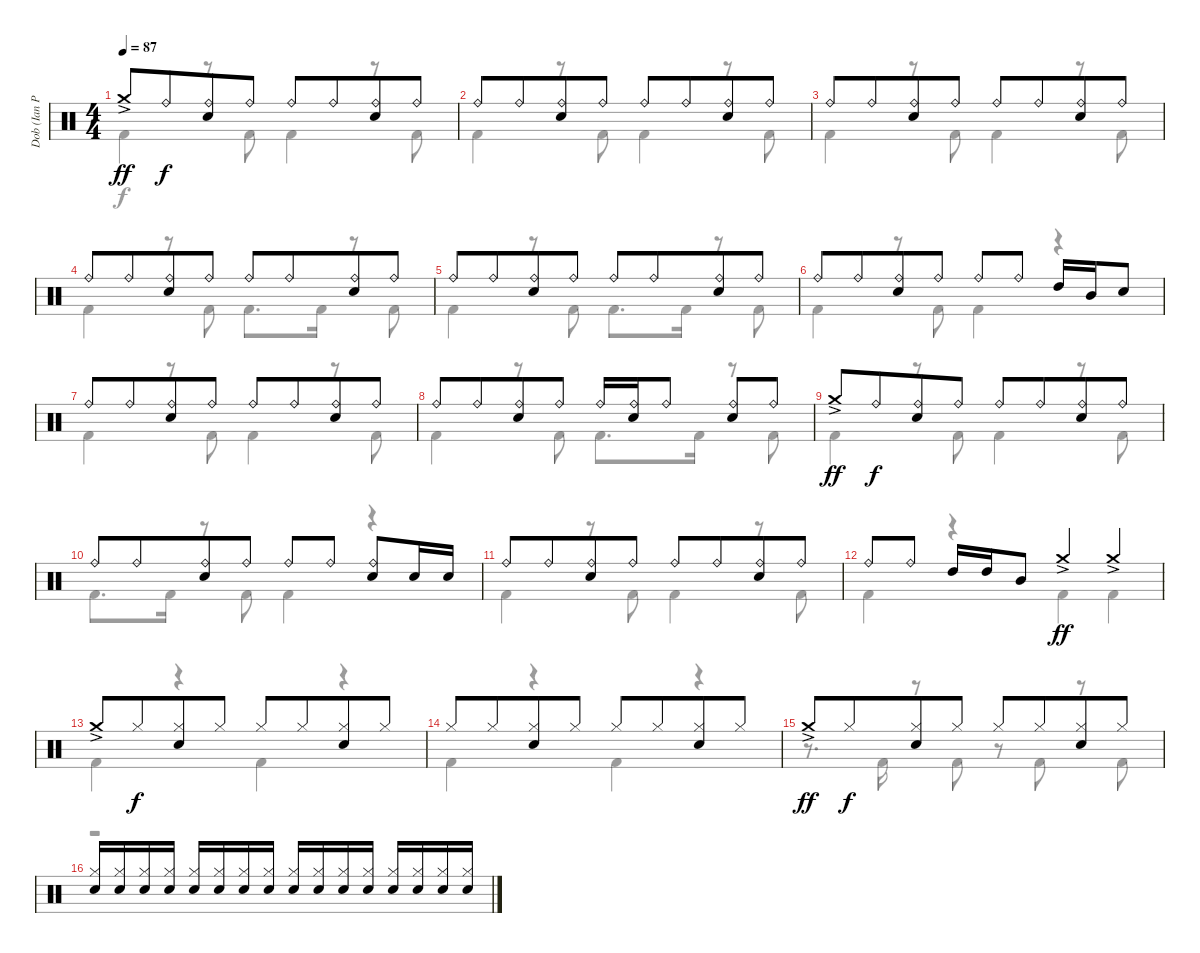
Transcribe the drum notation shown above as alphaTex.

\track ("Dob (Ian Paice)" "Dob (Ian P") {instrument percussion}
\staff {score}
\articulation defaults
\voice
\ts (4 4)
\tempo 87
\clef neutral
\ks c "Crash medium (hit)"{ac}.8{dy ff} "Ride (bell)".8{dy f beam merge}
("Ride (bell)" "Electric Snare (hit)").8 "Ride (bell)".8 "Ride (bell)".8 "Ride (bell)".8{beam merge} ("Ride (bell)" "Electric Snare (hit)").8 "Ride (bell)".8 |
"Ride (bell)".8 "Ride (bell)".8{beam merge} ("Ride (bell)" "Electric Snare (hit)").8 "Ride (bell)".8 "Ride (bell)".8 "Ride (bell)".8{beam merge} ("Ride (bell)" "Electric Snare (hit)").8 "Ride (bell)".8 |
"Ride (bell)".8 "Ride (bell)".8{beam merge} ("Ride (bell)" "Electric Snare (hit)").8 "Ride (bell)".8 "Ride (bell)".8 "Ride (bell)".8{beam merge} ("Ride (bell)" "Electric Snare (hit)").8 "Ride (bell)".8 |
"Ride (bell)".8 "Ride (bell)".8{beam merge} ("Ride (bell)" "Electric Snare (hit)").8 "Ride (bell)".8 "Ride (bell)".8 "Ride (bell)".8{beam merge} ("Ride (bell)" "Electric Snare (hit)").8 "Ride (bell)".8 |
"Ride (bell)".8 "Ride (bell)".8{beam merge} ("Ride (bell)" "Electric Snare (hit)").8 "Ride (bell)".8 "Ride (bell)".8 "Ride (bell)".8{beam merge} ("Ride (bell)" "Electric Snare (hit)").8 "Ride (bell)".8 |
"Ride (bell)".8 "Ride (bell)".8{beam merge} ("Ride (bell)" "Electric Snare (hit)").8 "Ride (bell)".8 "Ride (bell)".8 "Ride (bell)".8 "High Tom (hit)".16 "Mid Tom (hit)".16 "Electric Snare (hit)".8 |
"Ride (bell)".8 "Ride (bell)".8{beam merge} ("Ride (bell)" "Electric Snare (hit)").8 "Ride (bell)".8 "Ride (bell)".8 "Ride (bell)".8{beam merge} ("Ride (bell)" "Electric Snare (hit)").8 "Ride (bell)".8 |
"Ride (bell)".8 "Ride (bell)".8{beam merge} ("Ride (bell)" "Electric Snare (hit)").8 "Ride (bell)".8 "Ride (bell)".16{beam merge} ("Ride (bell)" "Electric Snare (hit)").16 "Ride (bell)".8{beam split} ("Ride (bell)" "Electric Snare (hit)").8 "Ride (bell)".8 |
"Crash medium (hit)"{ac}.8{dy ff} "Ride (bell)".8{dy f beam merge} ("Ride (bell)" "Electric Snare (hit)").8 "Ride (bell)".8 "Ride (bell)".8 "Ride (bell)".8{beam merge} ("Ride (bell)" "Electric Snare (hit)").8 "Ride (bell)".8 |
"Ride (bell)".8 "Ride (bell)".8{beam merge} ("Ride (bell)" "Electric Snare (hit)").8 "Ride (bell)".8 "Ride (bell)".8 "Ride (bell)".8 ("Ride (bell)" "Electric Snare (hit)").8 "Electric Snare (hit)".16 "Electric Snare (hit)".16 |
"Ride (bell)".8 "Ride (bell)".8{beam merge} ("Ride (bell)" "Electric Snare (hit)").8 "Ride (bell)".8 "Ride (bell)".8 "Ride (bell)".8{beam merge} ("Ride (bell)" "Electric Snare (hit)").8 "Ride (bell)".8 |
"Ride (bell)".8 "Ride (bell)".8 "High Tom (hit)".16 "High Tom (hit)".16 "Mid Tom (hit)".8 "Crash medium (hit)"{ac}.4{dy ff} "Crash medium (hit)"{ac}.4 |
"Crash medium (hit)"{ac}.8 "Hi-Hat (closed)".8{dy f beam merge} ("Hi-Hat (closed)" "Electric Snare (hit)").8 "Hi-Hat (closed)".8 "Hi-Hat (closed)".8 "Hi-Hat (closed)".8{beam merge} ("Hi-Hat (closed)" "Electric Snare (hit)").8 "Hi-Hat (closed)".8 |
"Hi-Hat (closed)".8 "Hi-Hat (closed)".8{beam merge} ("Hi-Hat (closed)" "Electric Snare (hit)").8 "Hi-Hat (closed)".8 "Hi-Hat (closed)".8 "Hi-Hat (closed)".8{beam merge} ("Hi-Hat (closed)" "Electric Snare (hit)").8 "Hi-Hat (closed)".8 |
"Crash medium (hit)"{ac}.8{dy ff} "Hi-Hat (closed)".8{dy f beam merge} ("Hi-Hat (closed)" "Electric Snare (hit)").8 "Hi-Hat (closed)".8 "Hi-Hat (closed)".8 "Hi-Hat (closed)".8{beam merge} ("Hi-Hat (closed)" "Electric Snare (hit)").8 "Hi-Hat (closed)".8 |
("Hi-Hat (closed)" "Electric Snare (hit)").16 ("Hi-Hat (closed)" "Electric Snare (hit)").16 ("Hi-Hat (closed)" "Electric Snare (hit)").16 ("Hi-Hat (closed)" "Electric Snare (hit)").16 ("Hi-Hat (closed)" "Electric Snare (hit)").16 ("Hi-Hat (closed)" "Electric Snare (hit)").16 ("Hi-Hat (closed)" "Electric Snare (hit)").16 ("Hi-Hat (closed)" "Electric Snare (hit)").16 ("Hi-Hat (closed)" "Electric Snare (hit)").16 ("Hi-Hat (closed)" "Electric Snare (hit)").16 ("Hi-Hat (closed)" "Electric Snare (hit)").16 ("Hi-Hat (closed)" "Electric Snare (hit)").16 ("Hi-Hat (closed)" "Electric Snare (hit)").16 ("Hi-Hat (closed)" "Electric Snare (hit)").16 ("Hi-Hat (closed)" "Electric Snare (hit)").16 ("Hi-Hat (closed)" "Electric Snare (hit)").16
\voice
\clef neutral
\ottava regular
\simile none
\ks c "Kick (hit) 2".4{dy f}
r.8 "Kick (hit) 2".8 "Kick (hit) 2".4 r.8 "Kick (hit) 2".8 |
"Kick (hit) 2".4 r.8 "Kick (hit) 2".8 "Kick (hit) 2".4 r.8 "Kick (hit) 2".8 |
"Kick (hit) 2".4 r.8 "Kick (hit) 2".8 "Kick (hit) 2".4 r.8 "Kick (hit) 2".8 |
"Kick (hit) 2".4 r.8 "Kick (hit) 2".8 "Kick (hit) 2".8{d} "Kick (hit) 2".16 r.8 "Kick (hit) 2".8 |
"Kick (hit) 2".4 r.8 "Kick (hit) 2".8 "Kick (hit) 2".8{d} "Kick (hit) 2".16 r.8 "Kick (hit) 2".8 |
"Kick (hit) 2".4 r.8 "Kick (hit) 2".8 "Kick (hit) 2".4 r.4 |
"Kick (hit) 2".4 r.8 "Kick (hit) 2".8 "Kick (hit) 2".4 r.8 "Kick (hit) 2".8 |
"Kick (hit) 2".4 r.8 "Kick (hit) 2".8 "Kick (hit) 2".8{d} "Kick (hit) 2".16 r.8 "Kick (hit) 2".8 |
"Kick (hit) 2".4 r.8 "Kick (hit) 2".8 "Kick (hit) 2".4 r.8 "Kick (hit) 2".8 |
"Kick (hit) 2".8{d} "Kick (hit) 2".16 r.8 "Kick (hit) 2".8 "Kick (hit) 2".4 r.4 |
"Kick (hit) 2".4 r.8 "Kick (hit) 2".8 "Kick (hit) 2".4 r.8 "Kick (hit) 2".8 |
"Kick (hit) 2".4 r.4 "Kick (hit) 2".4 "Kick (hit) 2".4 |
"Kick (hit) 2".4 r.4 "Kick (hit) 2".4 r.4 |
"Kick (hit) 2".4 r.4 "Kick (hit) 2".4 r.4 |
r.8{d} "Kick (hit) 2".16 r.8 "Kick (hit) 2".8 r.8 "Kick (hit) 2".8 r.8 "Kick (hit) 2".8 |
r.1
